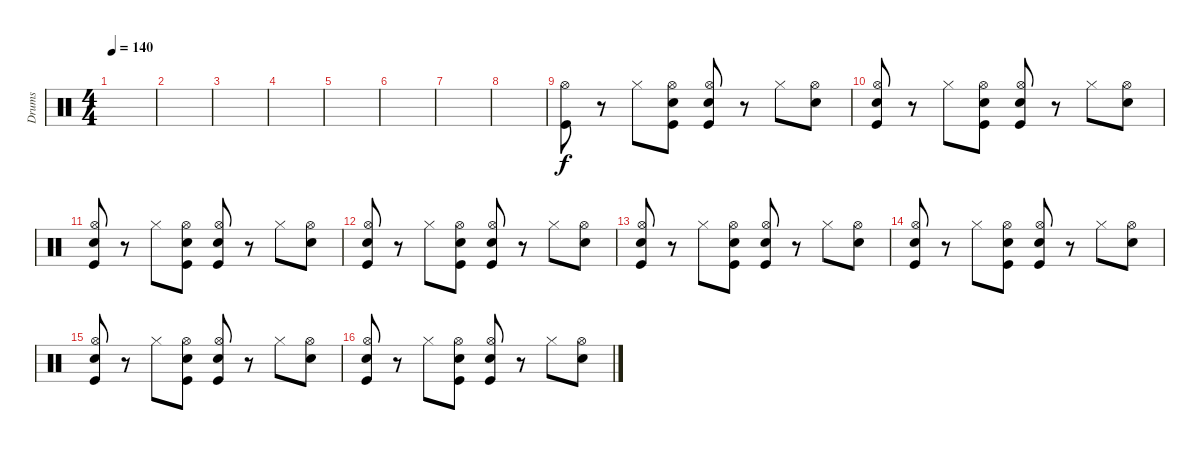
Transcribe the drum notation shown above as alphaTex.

\track ("Drums" "Drums") {instrument percussion}
\staff {score}
\articulation defaults
\ts (4 4)
\tempo 140
\clef neutral
\ks c
|
|
|
|
|
|
|
|
("Kick (hit)" "Hi-Hat (open)").8 r.8 "Hi-Hat (closed)".8 ("Snare (hit)" "Kick (hit)" "Hi-Hat (open)").8 ("Snare (hit)" "Kick (hit)" "Hi-Hat (open)").8 r.8 "Hi-Hat (closed)".8 ("Snare (hit)" "Hi-Hat (open)").8 |
("Snare (hit)" "Kick (hit)" "Hi-Hat (open)").8 r.8 "Hi-Hat (closed)".8 ("Snare (hit)" "Kick (hit)" "Hi-Hat (open)").8 ("Snare (hit)" "Kick (hit)" "Hi-Hat (open)").8 r.8 "Hi-Hat (closed)".8 ("Snare (hit)" "Hi-Hat (open)").8 |
("Snare (hit)" "Kick (hit)" "Hi-Hat (open)").8 r.8 "Hi-Hat (closed)".8 ("Snare (hit)" "Kick (hit)" "Hi-Hat (open)").8 ("Snare (hit)" "Kick (hit)" "Hi-Hat (open)").8 r.8 "Hi-Hat (closed)".8 ("Snare (hit)" "Hi-Hat (open)").8 |
("Snare (hit)" "Kick (hit)" "Hi-Hat (open)").8 r.8 "Hi-Hat (closed)".8 ("Snare (hit)" "Kick (hit)" "Hi-Hat (open)").8 ("Snare (hit)" "Kick (hit)" "Hi-Hat (open)").8 r.8 "Hi-Hat (closed)".8 ("Snare (hit)" "Hi-Hat (open)").8 |
("Snare (hit)" "Kick (hit)" "Hi-Hat (open)").8 r.8 "Hi-Hat (closed)".8 ("Snare (hit)" "Kick (hit)" "Hi-Hat (open)").8 ("Snare (hit)" "Kick (hit)" "Hi-Hat (open)").8 r.8 "Hi-Hat (closed)".8 ("Snare (hit)" "Hi-Hat (open)").8 |
("Snare (hit)" "Kick (hit)" "Hi-Hat (open)").8 r.8 "Hi-Hat (closed)".8 ("Snare (hit)" "Kick (hit)" "Hi-Hat (open)").8 ("Snare (hit)" "Kick (hit)" "Hi-Hat (open)").8 r.8 "Hi-Hat (closed)".8 ("Snare (hit)" "Hi-Hat (open)").8 |
("Snare (hit)" "Kick (hit)" "Hi-Hat (open)").8 r.8 "Hi-Hat (closed)".8 ("Snare (hit)" "Kick (hit)" "Hi-Hat (open)").8 ("Snare (hit)" "Kick (hit)" "Hi-Hat (open)").8 r.8 "Hi-Hat (closed)".8 ("Snare (hit)" "Hi-Hat (open)").8 |
("Snare (hit)" "Kick (hit)" "Hi-Hat (open)").8 r.8 "Hi-Hat (closed)".8 ("Snare (hit)" "Kick (hit)" "Hi-Hat (open)").8 ("Snare (hit)" "Kick (hit)" "Hi-Hat (open)").8 r.8 "Hi-Hat (closed)".8 ("Snare (hit)" "Hi-Hat (open)").8
